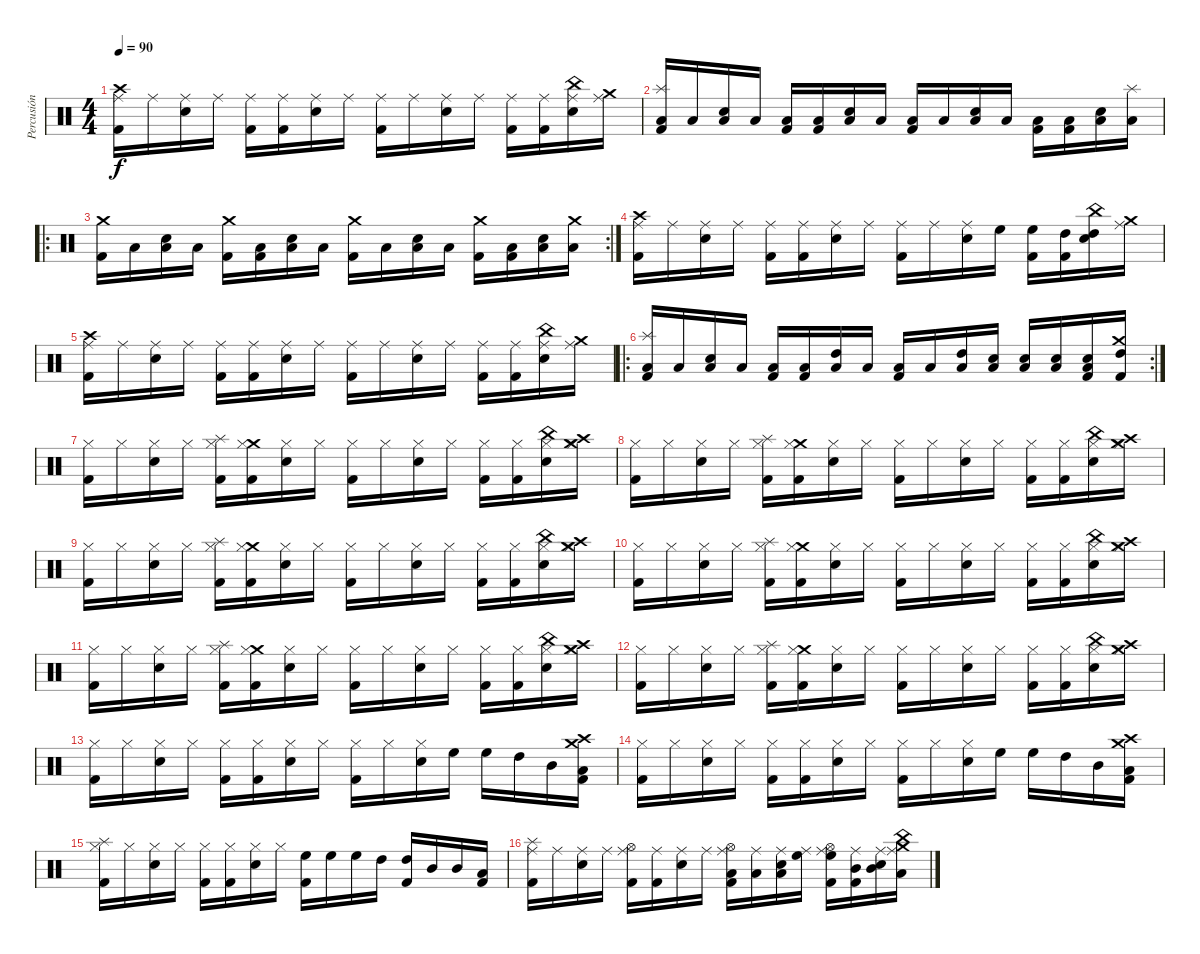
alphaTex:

\track ("Percusión" "Percusión") {instrument percussion}
\staff {score}
\articulation defaults
\ts (4 4)
\tempo 90
\clef neutral
\ks c
("Crash high (hit)" "Ride (middle)" "Kick (hit) 2").16{dy f} "Ride (middle)".16 ("Ride (middle)" "Electric Snare (hit)").16 "Ride (middle)".16 ("Ride (middle)" "Kick (hit) 2").16 ("Ride (middle)" "Kick (hit) 2").16 ("Ride (middle)" "Electric Snare (hit)").16 "Ride (middle)".16 ("Ride (middle)" "Kick (hit) 2").16 "Ride (middle)".16 ("Ride (middle)" "Electric Snare (hit)").16 "Ride (middle)".16 ("Ride (middle)" "Kick (hit) 2").16 ("Ride (middle)" "Kick (hit) 2").16 ("China (hit)" "Ride (middle)" "Electric Snare (hit)").16 ("Crash medium (hit)" "Ride (middle)").16 |
("Splash (hit)" "Low Tom (hit)" "Kick (hit) 2").16 "Low Tom (hit)".16 ("Low Tom (hit)" "Electric Snare (hit)").16 "Low Tom (hit)".16 ("Low Tom (hit)" "Kick (hit) 2").16 ("Low Tom (hit)" "Kick (hit) 2").16 ("Low Tom (hit)" "Electric Snare (hit)").16 "Low Tom (hit)".16 ("Low Tom (hit)" "Kick (hit) 2").16 "Low Tom (hit)".16 ("Low Tom (hit)" "Electric Snare (hit)").16 "Low Tom (hit)".16 ("Low Tom (hit)" "Kick (hit) 2").16 ("Low Tom (hit)" "Kick (hit) 2").16 ("Low Tom (hit)" "Electric Snare (hit)").16 ("Splash (hit)" "Low Tom (hit)").16 |
\ro
\rc 2
("Crash medium (hit)" "Kick (hit) 2").16 "Low Tom (hit)".16 ("Low Tom (hit)" "Electric Snare (hit)").16 "Low Tom (hit)".16 ("Crash medium (hit)" "Kick (hit) 2").16 ("Low Tom (hit)" "Kick (hit) 2").16 ("Low Tom (hit)" "Electric Snare (hit)").16 "Low Tom (hit)".16 ("Crash medium (hit)" "Kick (hit) 2").16 "Low Tom (hit)".16 ("Low Tom (hit)" "Electric Snare (hit)").16 "Low Tom (hit)".16 ("Crash medium (hit)" "Kick (hit) 2").16 ("Low Tom (hit)" "Kick (hit) 2").16 ("Low Tom (hit)" "Electric Snare (hit)").16 ("Crash medium (hit)" "Low Tom (hit)").16 |
("Crash high (hit)" "Ride (middle)" "Kick (hit) 2").16 "Ride (middle)".16 ("Ride (middle)" "Electric Snare (hit)").16 "Ride (middle)".16 ("Ride (middle)" "Kick (hit) 2").16 ("Ride (middle)" "Kick (hit) 2").16 ("Ride (middle)" "Electric Snare (hit)").16 "Ride (middle)".16 ("Ride (middle)" "Kick (hit) 2").16 "Ride (middle)".16 ("Ride (middle)" "Electric Snare (hit)").16 "High Floor Tom (hit)".16 ("High Floor Tom (hit)" "Kick (hit) 2").16 ("High Tom (hit)" "Kick (hit) 2").16 ("China (hit)" "High Tom (hit)" "Electric Snare (hit)").16 ("Crash medium (hit)" "Ride (middle)").16 |
("Crash high (hit)" "Ride (middle)" "Kick (hit) 2").16 "Ride (middle)".16 ("Ride (middle)" "Electric Snare (hit)").16 "Ride (middle)".16 ("Ride (middle)" "Kick (hit) 2").16 ("Ride (middle)" "Kick (hit) 2").16 ("Ride (middle)" "Electric Snare (hit)").16 "Ride (middle)".16 ("Ride (middle)" "Kick (hit) 2").16 "Ride (middle)".16 ("Ride (middle)" "Electric Snare (hit)").16 "Ride (middle)".16 ("Ride (middle)" "Kick (hit) 2").16 ("Ride (middle)" "Kick (hit) 2").16 ("China (hit)" "Ride (middle)" "Electric Snare (hit)").16 ("Crash medium (hit)" "Ride (middle)").16 |
\ro
\rc 2
("Splash (hit)" "Low Tom (hit)" "Kick (hit) 2").16 "Low Tom (hit)".16 ("Low Tom (hit)" "Electric Snare (hit)").16 "Low Tom (hit)".16 ("Low Tom (hit)" "Kick (hit) 2").16 ("Low Tom (hit)" "Kick (hit) 2").16 ("High Tom (hit)" "Low Tom (hit)").16 "Low Tom (hit)".16 ("Low Tom (hit)" "Kick (hit) 2").16 "Low Tom (hit)".16 ("High Tom (hit)" "Low Tom (hit)").16 ("Low Tom (hit)" "Electric Snare (hit)").16 ("Low Tom (hit)" "Electric Snare (hit)").16 ("Low Tom (hit)" "Electric Snare (hit)").16 ("Low Tom (hit)" "Electric Snare (hit)" "Kick (hit) 2").16 ("Crash medium (hit)" "High Tom (hit)" "Kick (hit) 2").16 |
("Hi-Hat (closed)" "Kick (hit) 2").16 "Hi-Hat (closed)".16 ("Hi-Hat (closed)" "Electric Snare (hit)").16 "Hi-Hat (closed)".16 ("Splash (hit)" "Hi-Hat (closed)" "Kick (hit) 2").16 ("Crash medium (hit)" "Hi-Hat (closed)" "Kick (hit) 2").16 ("Hi-Hat (closed)" "Electric Snare (hit)").16 "Hi-Hat (closed)".16 ("Hi-Hat (closed)" "Kick (hit) 2").16 "Hi-Hat (closed)".16 ("Hi-Hat (closed)" "Electric Snare (hit)").16 "Hi-Hat (closed)".16 ("Hi-Hat (closed)" "Kick (hit) 2").16 ("Hi-Hat (closed)" "Kick (hit) 2").16 ("China (hit)" "Hi-Hat (closed)" "Electric Snare (hit)").16 ("Crash high (hit)" "Hi-Hat (closed)" "Crash medium (hit)").16 |
("Hi-Hat (closed)" "Kick (hit) 2").16 "Hi-Hat (closed)".16 ("Hi-Hat (closed)" "Electric Snare (hit)").16 "Hi-Hat (closed)".16 ("Splash (hit)" "Hi-Hat (closed)" "Kick (hit) 2").16 ("Crash medium (hit)" "Hi-Hat (closed)" "Kick (hit) 2").16 ("Hi-Hat (closed)" "Electric Snare (hit)").16 "Hi-Hat (closed)".16 ("Hi-Hat (closed)" "Kick (hit) 2").16 "Hi-Hat (closed)".16 ("Hi-Hat (closed)" "Electric Snare (hit)").16 "Hi-Hat (closed)".16 ("Hi-Hat (closed)" "Kick (hit) 2").16 ("Hi-Hat (closed)" "Kick (hit) 2").16 ("China (hit)" "Hi-Hat (closed)" "Electric Snare (hit)").16 ("Crash high (hit)" "Hi-Hat (closed)" "Crash medium (hit)").16 |
("Hi-Hat (closed)" "Kick (hit) 2").16 "Hi-Hat (closed)".16 ("Hi-Hat (closed)" "Electric Snare (hit)").16 "Hi-Hat (closed)".16 ("Splash (hit)" "Hi-Hat (closed)" "Kick (hit) 2").16 ("Crash medium (hit)" "Hi-Hat (closed)" "Kick (hit) 2").16 ("Hi-Hat (closed)" "Electric Snare (hit)").16 "Hi-Hat (closed)".16 ("Hi-Hat (closed)" "Kick (hit) 2").16 "Hi-Hat (closed)".16 ("Hi-Hat (closed)" "Electric Snare (hit)").16 "Hi-Hat (closed)".16 ("Hi-Hat (closed)" "Kick (hit) 2").16 ("Hi-Hat (closed)" "Kick (hit) 2").16 ("China (hit)" "Hi-Hat (closed)" "Electric Snare (hit)").16 ("Crash high (hit)" "Hi-Hat (closed)" "Crash medium (hit)").16 |
("Hi-Hat (closed)" "Kick (hit) 2").16 "Hi-Hat (closed)".16 ("Hi-Hat (closed)" "Electric Snare (hit)").16 "Hi-Hat (closed)".16 ("Splash (hit)" "Hi-Hat (closed)" "Kick (hit) 2").16 ("Crash medium (hit)" "Hi-Hat (closed)" "Kick (hit) 2").16 ("Hi-Hat (closed)" "Electric Snare (hit)").16 "Hi-Hat (closed)".16 ("Hi-Hat (closed)" "Kick (hit) 2").16 "Hi-Hat (closed)".16 ("Hi-Hat (closed)" "Electric Snare (hit)").16 "Hi-Hat (closed)".16 ("Hi-Hat (closed)" "Kick (hit) 2").16 ("Hi-Hat (closed)" "Kick (hit) 2").16 ("China (hit)" "Hi-Hat (closed)" "Electric Snare (hit)").16 ("Crash high (hit)" "Hi-Hat (closed)" "Crash medium (hit)").16 |
("Hi-Hat (closed)" "Kick (hit) 2").16 "Hi-Hat (closed)".16 ("Hi-Hat (closed)" "Electric Snare (hit)").16 "Hi-Hat (closed)".16 ("Splash (hit)" "Hi-Hat (closed)" "Kick (hit) 2").16 ("Crash medium (hit)" "Hi-Hat (closed)" "Kick (hit) 2").16 ("Hi-Hat (closed)" "Electric Snare (hit)").16 "Hi-Hat (closed)".16 ("Hi-Hat (closed)" "Kick (hit) 2").16 "Hi-Hat (closed)".16 ("Hi-Hat (closed)" "Electric Snare (hit)").16 "Hi-Hat (closed)".16 ("Hi-Hat (closed)" "Kick (hit) 2").16 ("Hi-Hat (closed)" "Kick (hit) 2").16 ("China (hit)" "Hi-Hat (closed)" "Electric Snare (hit)").16 ("Crash high (hit)" "Hi-Hat (closed)" "Crash medium (hit)").16 |
("Hi-Hat (closed)" "Kick (hit) 2").16 "Hi-Hat (closed)".16 ("Hi-Hat (closed)" "Electric Snare (hit)").16 "Hi-Hat (closed)".16 ("Splash (hit)" "Hi-Hat (closed)" "Kick (hit) 2").16 ("Crash medium (hit)" "Hi-Hat (closed)" "Kick (hit) 2").16 ("Hi-Hat (closed)" "Electric Snare (hit)").16 "Hi-Hat (closed)".16 ("Hi-Hat (closed)" "Kick (hit) 2").16 "Hi-Hat (closed)".16 ("Hi-Hat (closed)" "Electric Snare (hit)").16 "Hi-Hat (closed)".16 ("Hi-Hat (closed)" "Kick (hit) 2").16 ("Hi-Hat (closed)" "Kick (hit) 2").16 ("China (hit)" "Hi-Hat (closed)" "Electric Snare (hit)").16 ("Crash high (hit)" "Hi-Hat (closed)" "Crash medium (hit)").16 |
("Hi-Hat (closed)" "Kick (hit) 2").16 "Hi-Hat (closed)".16 ("Hi-Hat (closed)" "Electric Snare (hit)").16 "Hi-Hat (closed)".16 ("Hi-Hat (closed)" "Kick (hit) 2").16 ("Hi-Hat (closed)" "Kick (hit) 2").16 ("Hi-Hat (closed)" "Electric Snare (hit)").16 "Hi-Hat (closed)".16 ("Hi-Hat (closed)" "Kick (hit) 2").16 "Hi-Hat (closed)".16 ("Hi-Hat (closed)" "Electric Snare (hit)").16 "High Floor Tom (hit)".16 "High Floor Tom (hit)".16 "High Tom (hit)".16 "Mid Tom (hit)".16 ("Crash high (hit)" "Kick (hit) 2" "Low Tom (hit)" "Crash medium (hit)").16 |
("Hi-Hat (closed)" "Kick (hit) 2").16 "Hi-Hat (closed)".16 ("Hi-Hat (closed)" "Electric Snare (hit)").16 "Hi-Hat (closed)".16 ("Hi-Hat (closed)" "Kick (hit) 2").16 ("Hi-Hat (closed)" "Kick (hit) 2").16 ("Hi-Hat (closed)" "Electric Snare (hit)").16 "Hi-Hat (closed)".16 ("Hi-Hat (closed)" "Kick (hit) 2").16 "Hi-Hat (closed)".16 ("Hi-Hat (closed)" "Electric Snare (hit)").16 "High Floor Tom (hit)".16 "High Floor Tom (hit)".16 "High Tom (hit)".16 "Mid Tom (hit)".16 ("Crash high (hit)" "Kick (hit) 2" "Low Tom (hit)" "Crash medium (hit)").16 |
("Splash (hit)" "Hi-Hat (closed)" "Kick (hit) 2").16 "Hi-Hat (closed)".16 ("Hi-Hat (closed)" "Electric Snare (hit)").16 "Hi-Hat (closed)".16 ("Hi-Hat (closed)" "Kick (hit) 2").16 ("Hi-Hat (closed)" "Kick (hit) 2").16 ("Hi-Hat (closed)" "Electric Snare (hit)").16 "Hi-Hat (closed)".16 ("High Floor Tom (hit)" "Kick (hit) 2").16 "High Floor Tom (hit)".16 "High Floor Tom (hit)".16 "High Tom (hit)".16 ("High Tom (hit)" "Kick (hit) 2").16 "Mid Tom (hit)".16 "Mid Tom (hit)".16 ("Low Tom (hit)" "Kick (hit) 2").16 |
("Splash (hit)" "Ride (middle)" "Kick (hit) 2").16 "Ride (middle)".16 ("Ride (middle)" "Electric Snare (hit)").16 "Ride (middle)".16 ("Hi-Hat (open)" "Ride (middle)" "Kick (hit) 2").16 ("Ride (middle)" "Kick (hit) 2").16 ("Ride (middle)" "Electric Snare (hit)").16 "Ride (middle)".16 ("Hi-Hat (open)" "Ride (middle)" "Kick (hit) 2" "Low Tom (hit)").16 ("Ride (middle)" "Low Tom (hit)").16 ("Ride (middle)" "Electric Snare (hit)" "Low Tom (hit)").16 ("Ride (middle)" "High Floor Tom (hit)").16 ("Hi-Hat (open)" "Ride (middle)" "Kick (hit) 2" "High Floor Tom (hit)").16 ("Ride (middle)" "Kick (hit) 2" "Mid Tom (hit)").16 ("Ride (middle)" "Electric Snare (hit)" "Mid Tom (hit)").16 ("China (hit)" "Ride (middle)" "Crash medium (hit)" "Low Tom (hit)").16
